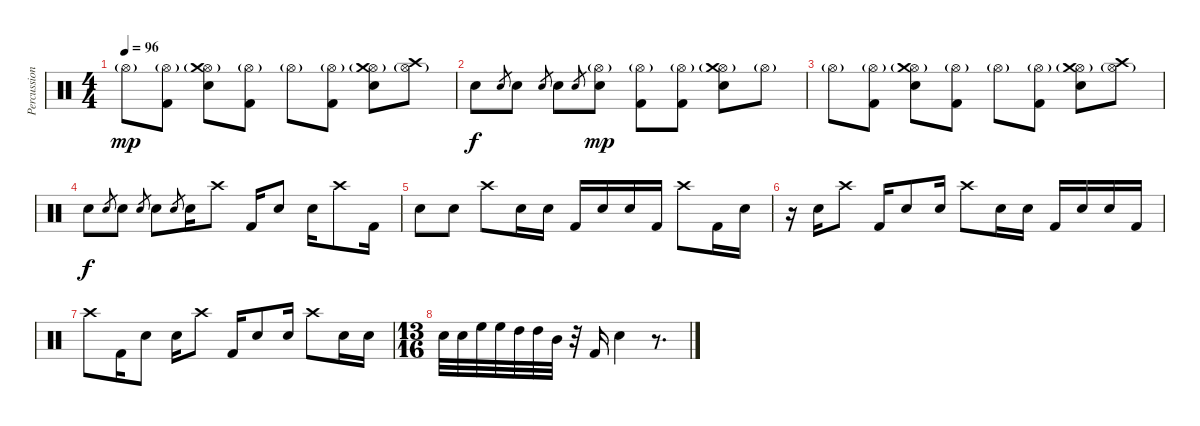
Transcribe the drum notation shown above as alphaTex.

\track ("Percussion" "Percussion") {instrument percussion}
\staff {score}
\articulation defaults
\ts (4 4)
\tempo 96
\clef neutral
\ks c "Hi-Hat (open)"{g}.8{dy mp}
("Hi-Hat (open)"{g} "Kick (hit) 2").8 ("Hi-Hat (open)"{g} "Crash medium (hit)" "Electric Snare (hit)").8 ("Hi-Hat (open)"{g} "Kick (hit) 2").8 "Hi-Hat (open)"{g}.8 ("Hi-Hat (open)"{g} "Kick (hit) 2").8 ("Hi-Hat (open)"{g} "Crash medium (hit)" "Electric Snare (hit)").8 ("Hi-Hat (open)"{g} "Crash high (hit)").8 |
"Electric Snare (hit)".8{dy f} "Electric Snare (hit)".8{gr} "Electric Snare (hit)".8 "Electric Snare (hit)".8{gr} "Electric Snare (hit)".8 "Electric Snare (hit)".8{gr} ("Hi-Hat (open)"{g} "Electric Snare (hit)").8{dy mp} ("Hi-Hat (open)"{g} "Kick (hit) 2").8 ("Hi-Hat (open)"{g} "Kick (hit) 2").8 ("Hi-Hat (open)"{g} "Crash medium (hit)" "Electric Snare (hit)").8 "Hi-Hat (open)"{g}.8 |
"Hi-Hat (open)"{g}.8 ("Hi-Hat (open)"{g} "Kick (hit) 2").8 ("Hi-Hat (open)"{g} "Crash medium (hit)" "Electric Snare (hit)").8 ("Hi-Hat (open)"{g} "Kick (hit) 2").8 "Hi-Hat (open)"{g}.8 ("Hi-Hat (open)"{g} "Kick (hit) 2").8 ("Hi-Hat (open)"{g} "Crash medium (hit)" "Electric Snare (hit)").8 ("Hi-Hat (open)"{g} "Crash high (hit)").8 |
"Electric Snare (hit)".8{dy f} "Electric Snare (hit)".8{gr} "Electric Snare (hit)".8 "Electric Snare (hit)".8{gr} "Electric Snare (hit)".8 "Electric Snare (hit)".8{gr} "Electric Snare (hit)".16 "Crash high (hit)".8 "Kick (hit) 2".16 "Electric Snare (hit)".8 "Electric Snare (hit)".16 "Crash high (hit)".8 "Kick (hit) 2".16 |
"Electric Snare (hit)".8 "Electric Snare (hit)".8 "Crash high (hit)".8 "Electric Snare (hit)".16 "Electric Snare (hit)".16 "Kick (hit) 2".16 "Electric Snare (hit)".16 "Electric Snare (hit)".16 "Kick (hit) 2".16 "Crash high (hit)".8 "Kick (hit) 2".16 "Electric Snare (hit)".16 |
r.16 "Electric Snare (hit)".16 "Crash high (hit)".8 "Kick (hit) 2".16 "Electric Snare (hit)".8 "Electric Snare (hit)".16 "Crash high (hit)".8 "Electric Snare (hit)".16 "Electric Snare (hit)".16 "Kick (hit) 2".16 "Electric Snare (hit)".16 "Electric Snare (hit)".16 "Kick (hit) 2".16 |
"Crash high (hit)".8 "Kick (hit) 2".16 "Electric Snare (hit)".8 "Electric Snare (hit)".16 "Crash high (hit)".8 "Kick (hit) 2".16 "Electric Snare (hit)".8 "Electric Snare (hit)".16 "Crash high (hit)".8 "Electric Snare (hit)".16 "Electric Snare (hit)".16 |
\ts (13 16)
"Electric Snare (hit)".32 "Electric Snare (hit)".32 "High Floor Tom (hit)".32 "High Floor Tom (hit)".32 "High Tom (hit)".32 "High Tom (hit)".32 "Mid Tom (hit)".32 r.32 "Kick (hit) 2".16 "Electric Snare (hit)".4 r.8{d}
